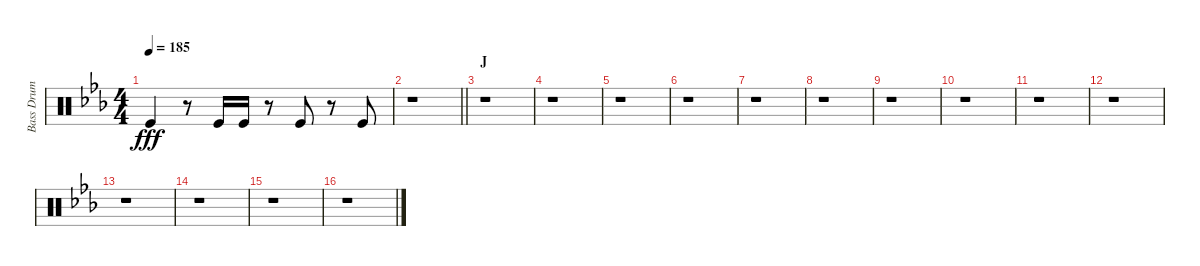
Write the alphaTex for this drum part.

\track ("Bass Drum" "Bass Drum") {instrument percussion}
\staff {score}
\articulation defaults
\ts (4 4)
\tempo 185
\clef neutral
\ks eb "Kick (hit)".4{dy fff}
r.8 "Kick (hit)".16 "Kick (hit)".16 r.8 "Kick (hit)".8 r.8 "Kick (hit)".8 |
\barLineRight lightlight
r.1 |
\section ("" "J")
r.1 |
r.1 |
r.1 |
r.1 |
r.1 |
r.1 |
r.1 |
r.1 |
r.1 |
r.1 |
r.1 |
r.1 |
r.1 |
r.1
